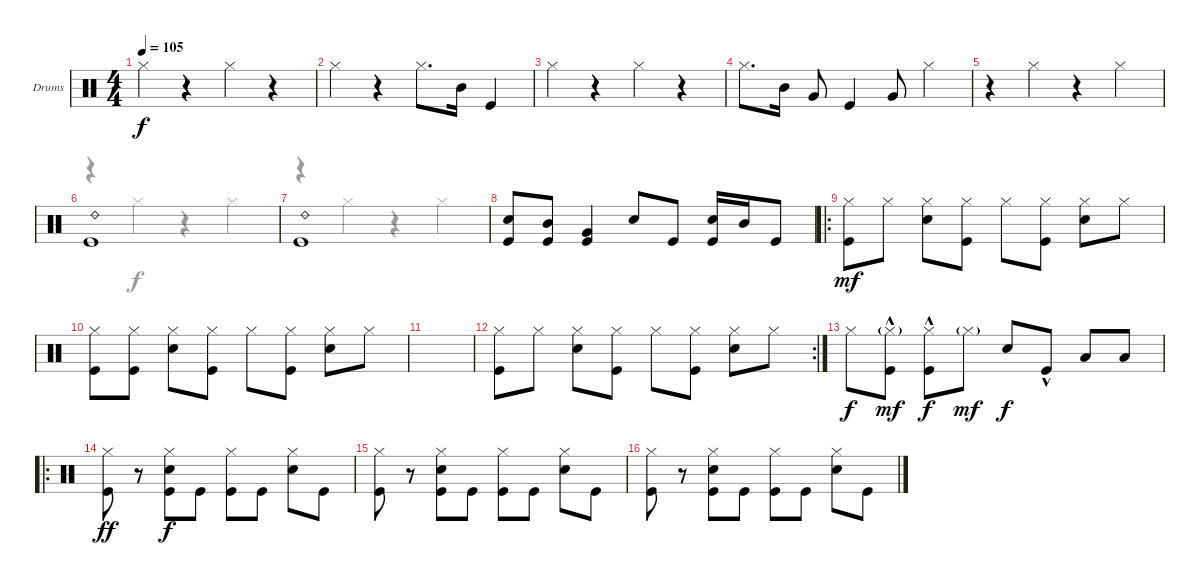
\defaultSystemsLayout 4
\bracketExtendMode groupsimilarinstruments
\firstSystemTrackNameOrientation horizontal
\otherSystemsTrackNameOrientation horizontal
\track ("Ily" "Drums") {instrument percussion}
\staff {score}
\articulation defaults
\voice
\ts (4 4)
\tempo 105
\clef neutral
\ks c "Hi-Hat (closed)".4{dy f}
r.4 "Hi-Hat (closed)".4 r.4 |
"Hi-Hat (closed)".4 r.4 "Hi-Hat (closed)".8{d} "Mid Tom (hit)".16 "Kick (hit)".4 |
"Hi-Hat (closed)".4 r.4 "Hi-Hat (closed)".4 r.4 |
"Hi-Hat (closed)".8{d} "Mid Tom (hit)".16 "Very Low Tom (hit)".8 "Kick (hit)".4 "Very Low Tom (hit)".8 "Hi-Hat (closed)".4 |
r.4 "Hi-Hat (closed)".4 r.4 "Hi-Hat (closed)".4 |
("Ride (bell) 2" "Kick (hit)").1 |
("Ride (bell) 2" "Kick (hit)").1 |
("Kick (hit)" "Snare (hit) 2").8 ("Mid Tom (hit)" "Kick (hit)").8 ("Very Low Tom (hit)" "Kick (hit)").4 "Snare (hit) 2".8 "Kick (hit)".8 ("Snare (hit) 2" "Kick (hit)").16 "Mid Tom (hit)".16 "Kick (hit)".8 |
\ro
("Hi-Hat (closed)" "Kick (hit)").8{dy mf} "Hi-Hat (closed)".8 ("Hi-Hat (closed)" "Snare (hit) 2").8 ("Hi-Hat (closed)" "Kick (hit)").8 "Hi-Hat (closed)".8 ("Hi-Hat (closed)" "Kick (hit)").8 ("Hi-Hat (closed)" "Snare (hit) 2").8 "Hi-Hat (closed)".8 |
("Hi-Hat (closed)" "Kick (hit)").8 ("Hi-Hat (closed)" "Kick (hit)").8 ("Hi-Hat (closed)" "Snare (hit) 2").8 ("Hi-Hat (closed)" "Kick (hit)").8 "Hi-Hat (closed)".8 ("Hi-Hat (closed)" "Kick (hit)").8 ("Hi-Hat (closed)" "Snare (hit) 2").8 "Hi-Hat (closed)".8 |
|
\rc 2
("Hi-Hat (closed)" "Kick (hit)").8 "Hi-Hat (closed)".8 ("Hi-Hat (closed)" "Snare (hit) 2").8 ("Hi-Hat (closed)" "Kick (hit)").8 "Hi-Hat (closed)".8 ("Hi-Hat (closed)" "Kick (hit)").8 ("Hi-Hat (closed)" "Snare (hit) 2").8 "Hi-Hat (closed)".8 |
"Hi-Hat (closed)".8{dy f} ("Hi-Hat (closed)"{g} "Kick (hit)"{hac}).8{dy mf} ("Hi-Hat (closed)" "Kick (hit)"{hac}).8{dy f} "Hi-Hat (closed)"{g}.8{dy mf} "Snare (hit) 2".8{dy f} "Kick (hit)"{hac}.8 "Low Tom (hit)".8 "Low Tom (hit)".8 |
\ro
("Hi-Hat (closed)" "Kick (hit)").8{dy ff} r.8 ("Hi-Hat (closed)" "Kick (hit)" "Snare (hit) 2").8{dy f} "Kick (hit)".8 ("Hi-Hat (closed)" "Kick (hit)").8 "Kick (hit)".8 ("Hi-Hat (closed)" "Snare (hit) 2").8 "Kick (hit)".8 |
("Hi-Hat (closed)" "Kick (hit)").8 r.8 ("Hi-Hat (closed)" "Kick (hit)" "Snare (hit) 2").8 "Kick (hit)".8 ("Hi-Hat (closed)" "Kick (hit)").8 "Kick (hit)".8 ("Hi-Hat (closed)" "Snare (hit) 2").8 "Kick (hit)".8 |
("Hi-Hat (closed)" "Kick (hit)").8 r.8 ("Hi-Hat (closed)" "Kick (hit)" "Snare (hit) 2").8 "Kick (hit)".8 ("Hi-Hat (closed)" "Kick (hit)").8 "Kick (hit)".8 ("Hi-Hat (closed)" "Snare (hit) 2").8 "Kick (hit)".8
\voice
\clef neutral
\ottava regular
\simile none
\ks c
|
|
|
|
|
r.4 "Hi-Hat (closed)".4 r.4 "Hi-Hat (closed)".4 |
r.4 "Hi-Hat (closed)".4 r.4 "Hi-Hat (closed)".4 |
|
|
|
|
|
|
|
|
